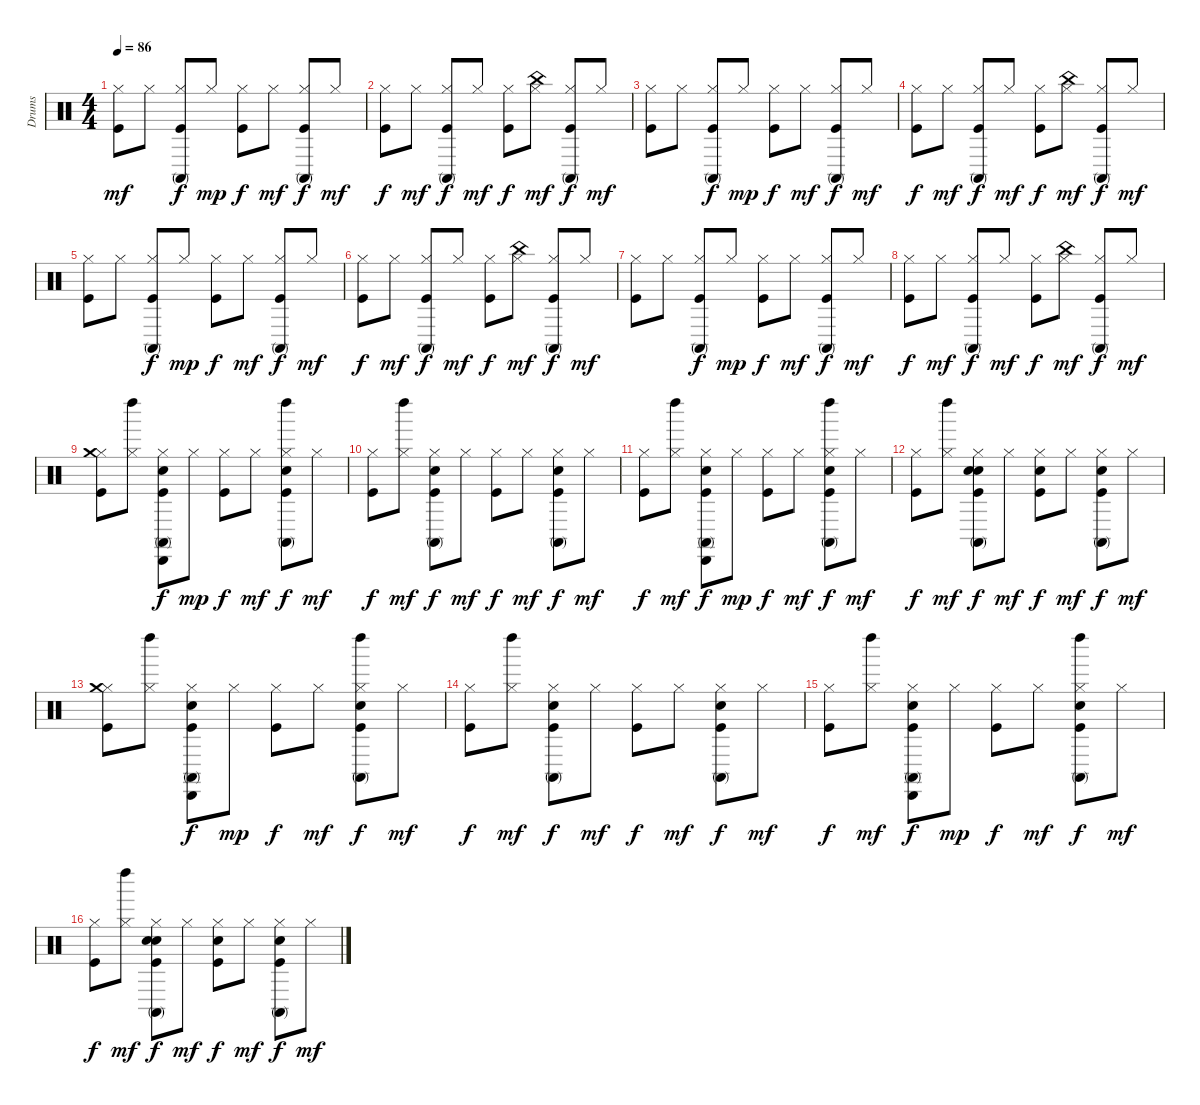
\track ("Drums" "Drums") {instrument percussion}
\staff {score}
\articulation defaults
\ts (4 4)
\tempo 86
\clef neutral
\ks c
("Hi-Hat (closed)" "Kick (hit)").8{dy mf} "Hi-Hat (closed)".8 ("Conga high (mute)" "Hi-Hat (closed)" "Kick (hit)").8{dy f} "Hi-Hat (closed)".8{dy mp} ("Hi-Hat (closed)" "Kick (hit)").8{dy f} "Hi-Hat (closed)".8{dy mf} ("Conga high (mute)" "Hi-Hat (closed)" "Kick (hit)").8{dy f} "Hi-Hat (closed)".8{dy mf} |
("Hi-Hat (closed)" "Kick (hit)").8{dy f} "Hi-Hat (closed)".8{dy mf} ("Conga high (mute)" "Hi-Hat (closed)" "Kick (hit)").8{dy f} "Hi-Hat (closed)".8{dy mf} ("Hi-Hat (closed)" "Kick (hit)").8{dy f} ("Hi-Hat (closed)" "China (hit)").8{dy mf} ("Conga high (mute)" "Hi-Hat (closed)" "Kick (hit)").8{dy f} "Hi-Hat (closed)".8{dy mf} |
("Hi-Hat (closed)" "Kick (hit)").8 "Hi-Hat (closed)".8 ("Conga high (mute)" "Hi-Hat (closed)" "Kick (hit)").8{dy f} "Hi-Hat (closed)".8{dy mp} ("Hi-Hat (closed)" "Kick (hit)").8{dy f} "Hi-Hat (closed)".8{dy mf} ("Conga high (mute)" "Hi-Hat (closed)" "Kick (hit)").8{dy f} "Hi-Hat (closed)".8{dy mf} |
("Hi-Hat (closed)" "Kick (hit)").8{dy f} "Hi-Hat (closed)".8{dy mf} ("Conga high (mute)" "Hi-Hat (closed)" "Kick (hit)").8{dy f} "Hi-Hat (closed)".8{dy mf} ("Hi-Hat (closed)" "Kick (hit)").8{dy f} ("Hi-Hat (closed)" "China (hit)").8{dy mf} ("Conga high (mute)" "Hi-Hat (closed)" "Kick (hit)").8{dy f} "Hi-Hat (closed)".8{dy mf} |
("Hi-Hat (closed)" "Kick (hit)").8 "Hi-Hat (closed)".8 ("Conga high (mute)" "Hi-Hat (closed)" "Kick (hit)").8{dy f} "Hi-Hat (closed)".8{dy mp} ("Hi-Hat (closed)" "Kick (hit)").8{dy f} "Hi-Hat (closed)".8{dy mf} ("Conga high (mute)" "Hi-Hat (closed)" "Kick (hit)").8{dy f} "Hi-Hat (closed)".8{dy mf} |
("Hi-Hat (closed)" "Kick (hit)").8{dy f} "Hi-Hat (closed)".8{dy mf} ("Conga high (mute)" "Hi-Hat (closed)" "Kick (hit)").8{dy f} "Hi-Hat (closed)".8{dy mf} ("Hi-Hat (closed)" "Kick (hit)").8{dy f} ("Hi-Hat (closed)" "China (hit)").8{dy mf} ("Conga high (mute)" "Hi-Hat (closed)" "Kick (hit)").8{dy f} "Hi-Hat (closed)".8{dy mf} |
("Hi-Hat (closed)" "Kick (hit)").8 "Hi-Hat (closed)".8 ("Conga high (mute)" "Hi-Hat (closed)" "Kick (hit)").8{dy f} "Hi-Hat (closed)".8{dy mp} ("Hi-Hat (closed)" "Kick (hit)").8{dy f} "Hi-Hat (closed)".8{dy mf} ("Conga high (mute)" "Hi-Hat (closed)" "Kick (hit)").8{dy f} "Hi-Hat (closed)".8{dy mf} |
("Hi-Hat (closed)" "Kick (hit)").8{dy f} "Hi-Hat (closed)".8{dy mf} ("Conga high (mute)" "Hi-Hat (closed)" "Kick (hit)").8{dy f} "Hi-Hat (closed)".8{dy mf} ("Hi-Hat (closed)" "Kick (hit)").8{dy f} ("Hi-Hat (closed)" "China (hit)").8{dy mf} ("Conga high (mute)" "Hi-Hat (closed)" "Kick (hit)").8{dy f} "Hi-Hat (closed)".8{dy mf} |
("Hi-Hat (closed)" "Crash medium (hit)" "Kick (hit)").8 ("Hi-Hat (closed)" "Left Maraca (hit)").8 ("Cabasa (hit)" "Snare (hit) 2" "Conga high (mute)" "Hi-Hat (closed)" "Kick (hit)").8{dy f} "Hi-Hat (closed)".8{dy mp} ("Hi-Hat (closed)" "Kick (hit)").8{dy f} "Hi-Hat (closed)".8{dy mf} ("Left Maraca (hit)" "Snare (hit) 2" "Conga high (mute)" "Hi-Hat (closed)" "Kick (hit)").8{dy f} "Hi-Hat (closed)".8{dy mf} |
("Hi-Hat (closed)" "Kick (hit)").8{dy f} ("Hi-Hat (closed)" "Left Maraca (hit)").8{dy mf} ("Snare (hit) 2" "Conga high (mute)" "Hi-Hat (closed)" "Kick (hit)").8{dy f} "Hi-Hat (closed)".8{dy mf} ("Hi-Hat (closed)" "Kick (hit)").8{dy f} "Hi-Hat (closed)".8{dy mf} ("Snare (hit) 2" "Conga high (mute)" "Hi-Hat (closed)" "Kick (hit)").8{dy f} "Hi-Hat (closed)".8{dy mf} |
("Hi-Hat (closed)" "Kick (hit)").8{dy f} ("Hi-Hat (closed)" "Left Maraca (hit)").8{dy mf} ("Cabasa (hit)" "Snare (hit) 2" "Conga high (mute)" "Hi-Hat (closed)" "Kick (hit)").8{dy f} "Hi-Hat (closed)".8{dy mp} ("Hi-Hat (closed)" "Kick (hit)").8{dy f} "Hi-Hat (closed)".8{dy mf} ("Left Maraca (hit)" "Snare (hit) 2" "Conga high (mute)" "Hi-Hat (closed)" "Kick (hit)").8{dy f} "Hi-Hat (closed)".8{dy mf} |
("Hi-Hat (closed)" "Kick (hit)").8{dy f} ("Hi-Hat (closed)" "Left Maraca (hit)").8{dy mf} ("Snare (hit) 2" "Conga high (mute)" "Hi-Hat (closed)" "Kick (hit)" "Snare (hit) 2").8{dy f} "Hi-Hat (closed)".8{dy mf} ("Hi-Hat (closed)" "Kick (hit)" "Snare (hit) 2").8{dy f} "Hi-Hat (closed)".8{dy mf} ("Snare (hit) 2" "Conga high (mute)" "Hi-Hat (closed)" "Kick (hit)").8{dy f} "Hi-Hat (closed)".8{dy mf} |
("Hi-Hat (closed)" "Crash medium (hit)" "Kick (hit)").8 ("Hi-Hat (closed)" "Left Maraca (hit)").8 ("Cabasa (hit)" "Snare (hit) 2" "Conga high (mute)" "Hi-Hat (closed)" "Kick (hit)").8{dy f} "Hi-Hat (closed)".8{dy mp} ("Hi-Hat (closed)" "Kick (hit)").8{dy f} "Hi-Hat (closed)".8{dy mf} ("Left Maraca (hit)" "Snare (hit) 2" "Conga high (mute)" "Hi-Hat (closed)" "Kick (hit)").8{dy f} "Hi-Hat (closed)".8{dy mf} |
("Hi-Hat (closed)" "Kick (hit)").8{dy f} ("Hi-Hat (closed)" "Left Maraca (hit)").8{dy mf} ("Snare (hit) 2" "Conga high (mute)" "Hi-Hat (closed)" "Kick (hit)").8{dy f} "Hi-Hat (closed)".8{dy mf} ("Hi-Hat (closed)" "Kick (hit)").8{dy f} "Hi-Hat (closed)".8{dy mf} ("Snare (hit) 2" "Conga high (mute)" "Hi-Hat (closed)" "Kick (hit)").8{dy f} "Hi-Hat (closed)".8{dy mf} |
("Hi-Hat (closed)" "Kick (hit)").8{dy f} ("Hi-Hat (closed)" "Left Maraca (hit)").8{dy mf} ("Cabasa (hit)" "Snare (hit) 2" "Conga high (mute)" "Hi-Hat (closed)" "Kick (hit)").8{dy f} "Hi-Hat (closed)".8{dy mp} ("Hi-Hat (closed)" "Kick (hit)").8{dy f} "Hi-Hat (closed)".8{dy mf} ("Left Maraca (hit)" "Snare (hit) 2" "Conga high (mute)" "Hi-Hat (closed)" "Kick (hit)").8{dy f} "Hi-Hat (closed)".8{dy mf} |
("Hi-Hat (closed)" "Kick (hit)").8{dy f} ("Hi-Hat (closed)" "Left Maraca (hit)").8{dy mf} ("Snare (hit) 2" "Conga high (mute)" "Hi-Hat (closed)" "Kick (hit)" "Snare (hit) 2").8{dy f} "Hi-Hat (closed)".8{dy mf} ("Hi-Hat (closed)" "Kick (hit)" "Snare (hit) 2").8{dy f} "Hi-Hat (closed)".8{dy mf} ("Snare (hit) 2" "Conga high (mute)" "Hi-Hat (closed)" "Kick (hit)").8{dy f} "Hi-Hat (closed)".8{dy mf}
